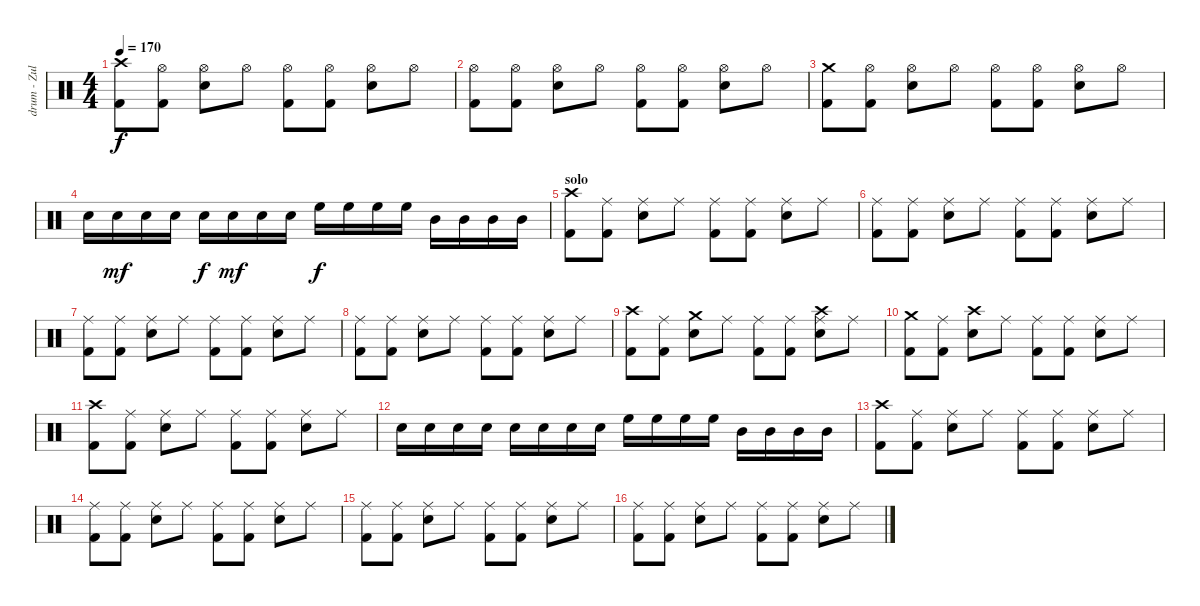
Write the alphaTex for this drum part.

\track ("drum - Zul ???" "drum - Zul") {instrument percussion}
\staff {score}
\articulation defaults
\ts (4 4)
\tempo 170
\clef neutral
\ks c
("Crash high (hit)" "Kick (hit) 2").8{dy f} ("Hi-Hat (open)" "Kick (hit) 2").8 ("Hi-Hat (open)" "Snare (hit) 2").8 "Hi-Hat (open)".8 ("Hi-Hat (open)" "Kick (hit) 2").8 ("Hi-Hat (open)" "Kick (hit) 2").8 ("Hi-Hat (open)" "Snare (hit) 2").8 "Hi-Hat (open)".8 |
("Hi-Hat (open)" "Kick (hit) 2").8 ("Hi-Hat (open)" "Kick (hit) 2").8 ("Hi-Hat (open)" "Snare (hit) 2").8 "Hi-Hat (open)".8 ("Hi-Hat (open)" "Kick (hit) 2").8 ("Hi-Hat (open)" "Kick (hit) 2").8 ("Hi-Hat (open)" "Snare (hit) 2").8 "Hi-Hat (open)".8 |
("Crash medium (hit)" "Kick (hit) 2").8 ("Hi-Hat (open)" "Kick (hit) 2").8 ("Hi-Hat (open)" "Snare (hit) 2").8 "Hi-Hat (open)".8 ("Hi-Hat (open)" "Kick (hit) 2").8 ("Hi-Hat (open)" "Kick (hit) 2").8 ("Hi-Hat (open)" "Snare (hit) 2").8 "Hi-Hat (open)".8 |
"Snare (hit) 2".16 "Snare (hit) 2".16{dy mf} "Snare (hit) 2".16 "Snare (hit) 2".16 "Snare (hit) 2".16{dy f} "Snare (hit) 2".16{dy mf} "Snare (hit) 2".16 "Snare (hit) 2".16 "High Floor Tom (hit)".16{dy f} "High Floor Tom (hit)".16 "High Floor Tom (hit)".16 "High Floor Tom (hit)".16 "Mid Tom (hit)".16 "Mid Tom (hit)".16 "Mid Tom (hit)".16 "Mid Tom (hit)".16 |
\section ("" "solo")
("Crash high (hit)" "Kick (hit) 2").8 ("Ride (middle)" "Kick (hit) 2").8 ("Ride (middle)" "Snare (hit) 2").8 "Ride (middle)".8 ("Ride (middle)" "Kick (hit) 2").8 ("Ride (middle)" "Kick (hit) 2").8 ("Ride (middle)" "Snare (hit) 2").8 "Ride (middle)".8 |
("Ride (middle)" "Kick (hit) 2").8 ("Ride (middle)" "Kick (hit) 2").8 ("Ride (middle)" "Snare (hit) 2").8 "Ride (middle)".8 ("Ride (middle)" "Kick (hit) 2").8 ("Ride (middle)" "Kick (hit) 2").8 ("Ride (middle)" "Snare (hit) 2").8 "Ride (middle)".8 |
("Ride (middle)" "Kick (hit) 2").8 ("Ride (middle)" "Kick (hit) 2").8 ("Ride (middle)" "Snare (hit) 2").8 "Ride (middle)".8 ("Ride (middle)" "Kick (hit) 2").8 ("Ride (middle)" "Kick (hit) 2").8 ("Ride (middle)" "Snare (hit) 2").8 "Ride (middle)".8 |
("Ride (middle)" "Kick (hit) 2").8 ("Ride (middle)" "Kick (hit) 2").8 ("Ride (middle)" "Snare (hit) 2").8 "Ride (middle)".8 ("Ride (middle)" "Kick (hit) 2").8 ("Ride (middle)" "Kick (hit) 2").8 ("Ride (middle)" "Snare (hit) 2").8 "Ride (middle)".8 |
("Crash high (hit)" "Kick (hit) 2").8 ("Ride (middle)" "Kick (hit) 2").8 ("Crash medium (hit)" "Snare (hit) 2").8 "Ride (middle)".8 ("Ride (middle)" "Kick (hit) 2").8 ("Ride (middle)" "Kick (hit) 2").8 ("Crash high (hit)" "Ride (middle)" "Snare (hit) 2").8 "Ride (middle)".8 |
("Crash medium (hit)" "Kick (hit) 2").8 ("Ride (middle)" "Kick (hit) 2").8 ("Crash high (hit)" "Snare (hit) 2").8 "Ride (middle)".8 ("Ride (middle)" "Kick (hit) 2").8 ("Ride (middle)" "Kick (hit) 2").8 ("Ride (middle)" "Snare (hit) 2").8 "Ride (middle)".8 |
("Crash high (hit)" "Kick (hit) 2").8 ("Ride (middle)" "Kick (hit) 2").8 ("Ride (middle)" "Snare (hit) 2").8 "Ride (middle)".8 ("Ride (middle)" "Kick (hit) 2").8 ("Ride (middle)" "Kick (hit) 2").8 ("Ride (middle)" "Snare (hit) 2").8 "Ride (middle)".8 |
"Snare (hit) 2".16 "Snare (hit) 2".16 "Snare (hit) 2".16 "Snare (hit) 2".16 "Snare (hit) 2".16 "Snare (hit) 2".16 "Snare (hit) 2".16 "Snare (hit) 2".16 "High Floor Tom (hit)".16 "High Floor Tom (hit)".16 "High Floor Tom (hit)".16 "High Floor Tom (hit)".16 "Mid Tom (hit)".16 "Mid Tom (hit)".16 "Mid Tom (hit)".16 "Mid Tom (hit)".16 |
("Crash high (hit)" "Kick (hit) 2").8 ("Ride (middle)" "Kick (hit) 2").8 ("Ride (middle)" "Snare (hit) 2").8 "Ride (middle)".8 ("Ride (middle)" "Kick (hit) 2").8 ("Ride (middle)" "Kick (hit) 2").8 ("Ride (middle)" "Snare (hit) 2").8 "Ride (middle)".8 |
("Ride (middle)" "Kick (hit) 2").8 ("Ride (middle)" "Kick (hit) 2").8 ("Ride (middle)" "Snare (hit) 2").8 "Ride (middle)".8 ("Ride (middle)" "Kick (hit) 2").8 ("Ride (middle)" "Kick (hit) 2").8 ("Ride (middle)" "Snare (hit) 2").8 "Ride (middle)".8 |
("Ride (middle)" "Kick (hit) 2").8 ("Ride (middle)" "Kick (hit) 2").8 ("Ride (middle)" "Snare (hit) 2").8 "Ride (middle)".8 ("Ride (middle)" "Kick (hit) 2").8 ("Ride (middle)" "Kick (hit) 2").8 ("Ride (middle)" "Snare (hit) 2").8 "Ride (middle)".8 |
("Ride (middle)" "Kick (hit) 2").8 ("Ride (middle)" "Kick (hit) 2").8 ("Ride (middle)" "Snare (hit) 2").8 "Ride (middle)".8 ("Ride (middle)" "Kick (hit) 2").8 ("Ride (middle)" "Kick (hit) 2").8 ("Ride (middle)" "Snare (hit) 2").8 "Ride (middle)".8
